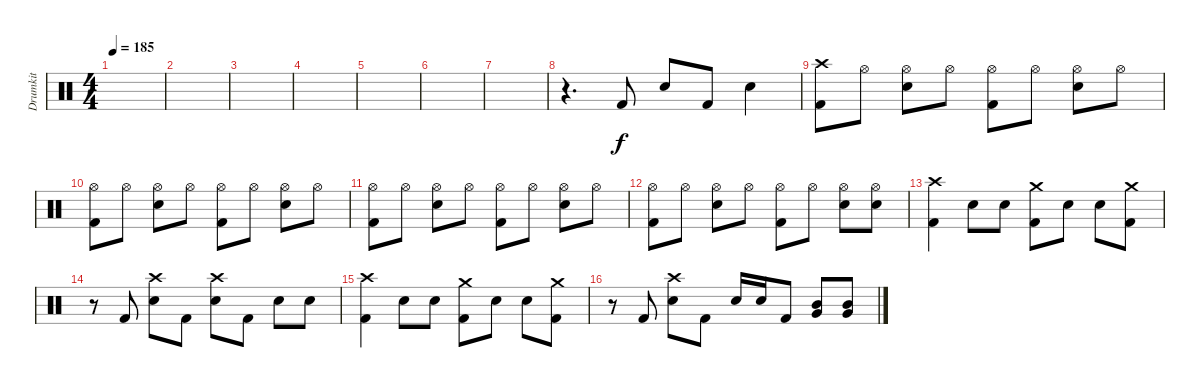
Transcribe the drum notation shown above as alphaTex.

\track ("Drumkit" "Drumkit") {instrument percussion}
\staff {score}
\articulation defaults
\ts (4 4)
\tempo 185
\clef neutral
\ks c
|
|
|
|
|
|
|
r.4{d} "Kick (hit) 2".8 "Electric Snare (hit)".8 "Kick (hit) 2".8 "Electric Snare (hit)".4 |
("Crash high (hit)" "Kick (hit) 2").8 "Hi-Hat (open)".8 ("Hi-Hat (open)" "Electric Snare (hit)").8 "Hi-Hat (open)".8 ("Hi-Hat (open)" "Kick (hit) 2").8 "Hi-Hat (open)".8 ("Hi-Hat (open)" "Electric Snare (hit)").8 "Hi-Hat (open)".8 |
("Hi-Hat (open)" "Kick (hit) 2").8 "Hi-Hat (open)".8 ("Hi-Hat (open)" "Electric Snare (hit)").8 "Hi-Hat (open)".8 ("Hi-Hat (open)" "Kick (hit) 2").8 "Hi-Hat (open)".8 ("Hi-Hat (open)" "Electric Snare (hit)").8 "Hi-Hat (open)".8 |
("Hi-Hat (open)" "Kick (hit) 2").8 "Hi-Hat (open)".8 ("Hi-Hat (open)" "Electric Snare (hit)").8 "Hi-Hat (open)".8 ("Hi-Hat (open)" "Kick (hit) 2").8 "Hi-Hat (open)".8 ("Hi-Hat (open)" "Electric Snare (hit)").8 "Hi-Hat (open)".8 |
("Hi-Hat (open)" "Kick (hit) 2").8 "Hi-Hat (open)".8 ("Hi-Hat (open)" "Electric Snare (hit)").8 "Hi-Hat (open)".8 ("Hi-Hat (open)" "Kick (hit) 2").8 "Hi-Hat (open)".8 ("Hi-Hat (open)" "Electric Snare (hit)").8 ("Hi-Hat (open)" "Electric Snare (hit)").8 |
("Crash high (hit)" "Kick (hit) 2").4 "Electric Snare (hit)".8 "Electric Snare (hit)".8 ("Crash medium (hit)" "Kick (hit) 2").8 "Electric Snare (hit)".8 "Electric Snare (hit)".8 ("Crash medium (hit)" "Kick (hit) 2").8 |
r.8 "Kick (hit) 2".8 ("Crash high (hit)" "Electric Snare (hit)").8 "Kick (hit) 2".8 ("Crash high (hit)" "Electric Snare (hit)").8 "Kick (hit) 2".8 "Electric Snare (hit)".8 "Electric Snare (hit)".8 |
("Crash high (hit)" "Kick (hit) 2").4 "Electric Snare (hit)".8 "Electric Snare (hit)".8 ("Crash medium (hit)" "Kick (hit) 2").8 "Electric Snare (hit)".8 "Electric Snare (hit)".8 ("Crash medium (hit)" "Kick (hit) 2").8 |
r.8 "Kick (hit) 2".8 ("Crash high (hit)" "Electric Snare (hit)").8 "Kick (hit) 2".8 "Electric Snare (hit)".16 "Electric Snare (hit)".16 "Kick (hit) 2".8 ("Mid Tom (hit)" "Very Low Tom (hit)").8 ("Mid Tom (hit)" "Very Low Tom (hit)").8
